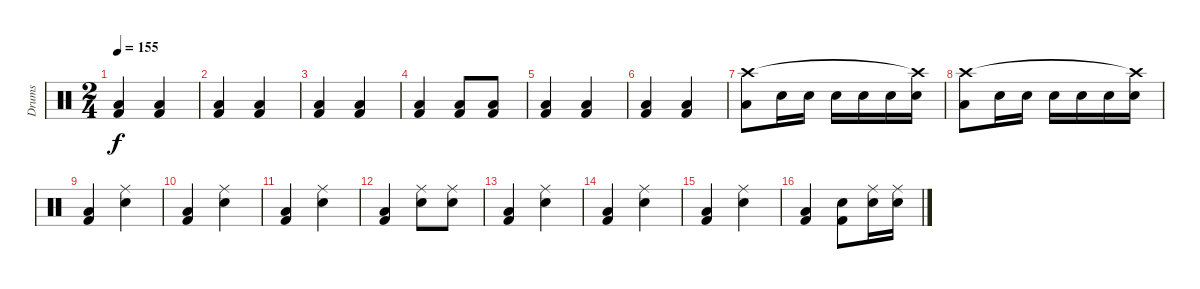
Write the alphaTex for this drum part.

\track ("Drums" "Drums") {instrument percussion}
\staff {score}
\articulation defaults
\ts (2 4)
\tempo 155
\clef neutral
\ks c
("Low Floor Tom (hit)" "Kick (hit) 2").4{dy f} ("Low Floor Tom (hit)" "Kick (hit) 2").4 |
("Low Floor Tom (hit)" "Kick (hit) 2").4 ("Low Floor Tom (hit)" "Kick (hit) 2").4 |
("Low Floor Tom (hit)" "Kick (hit) 2").4 ("Low Floor Tom (hit)" "Kick (hit) 2").4 |
("Low Floor Tom (hit)" "Kick (hit) 2").4 ("Low Floor Tom (hit)" "Kick (hit) 2").8 ("Low Floor Tom (hit)" "Kick (hit) 2").8 |
("Low Floor Tom (hit)" "Kick (hit) 2").4 ("Low Floor Tom (hit)" "Kick (hit) 2").4 |
("Low Floor Tom (hit)" "Kick (hit) 2").4 ("Low Floor Tom (hit)" "Kick (hit) 2").4 |
("Low Floor Tom (hit)" "Crash high (hit)").8 "Snare (hit) 2".16 "Snare (hit) 2".16 "Snare (hit) 2".16 "Snare (hit) 2".16 "Snare (hit) 2".16 ("Snare (hit) 2" "Crash high (hit)"{t}).16 |
("Low Floor Tom (hit)" "Crash high (hit)").8 "Snare (hit) 2".16 "Snare (hit) 2".16 "Snare (hit) 2".16 "Snare (hit) 2".16 "Snare (hit) 2".16 ("Snare (hit) 2" "Crash high (hit)"{t}).16 |
("Low Floor Tom (hit)" "Kick (hit) 2").4 ("Snare (hit) 2" "Ride (middle)").4 |
("Low Floor Tom (hit)" "Kick (hit) 2").4 ("Snare (hit) 2" "Ride (middle)").4 |
("Low Floor Tom (hit)" "Kick (hit) 2").4 ("Snare (hit) 2" "Ride (middle)").4 |
("Low Floor Tom (hit)" "Kick (hit) 2").4 ("Snare (hit) 2" "Ride (middle)").8 ("Snare (hit) 2" "Ride (middle)").8 |
("Low Floor Tom (hit)" "Kick (hit) 2").4 ("Snare (hit) 2" "Ride (middle)").4 |
("Low Floor Tom (hit)" "Kick (hit) 2").4 ("Snare (hit) 2" "Ride (middle)").4 |
("Low Floor Tom (hit)" "Kick (hit) 2").4 ("Snare (hit) 2" "Ride (middle)").4 |
("Low Floor Tom (hit)" "Kick (hit) 2").4 ("Snare (hit) 2" "Kick (hit) 2").8 ("Snare (hit) 2" "Ride (middle)").16 ("Snare (hit) 2" "Ride (middle)").16
